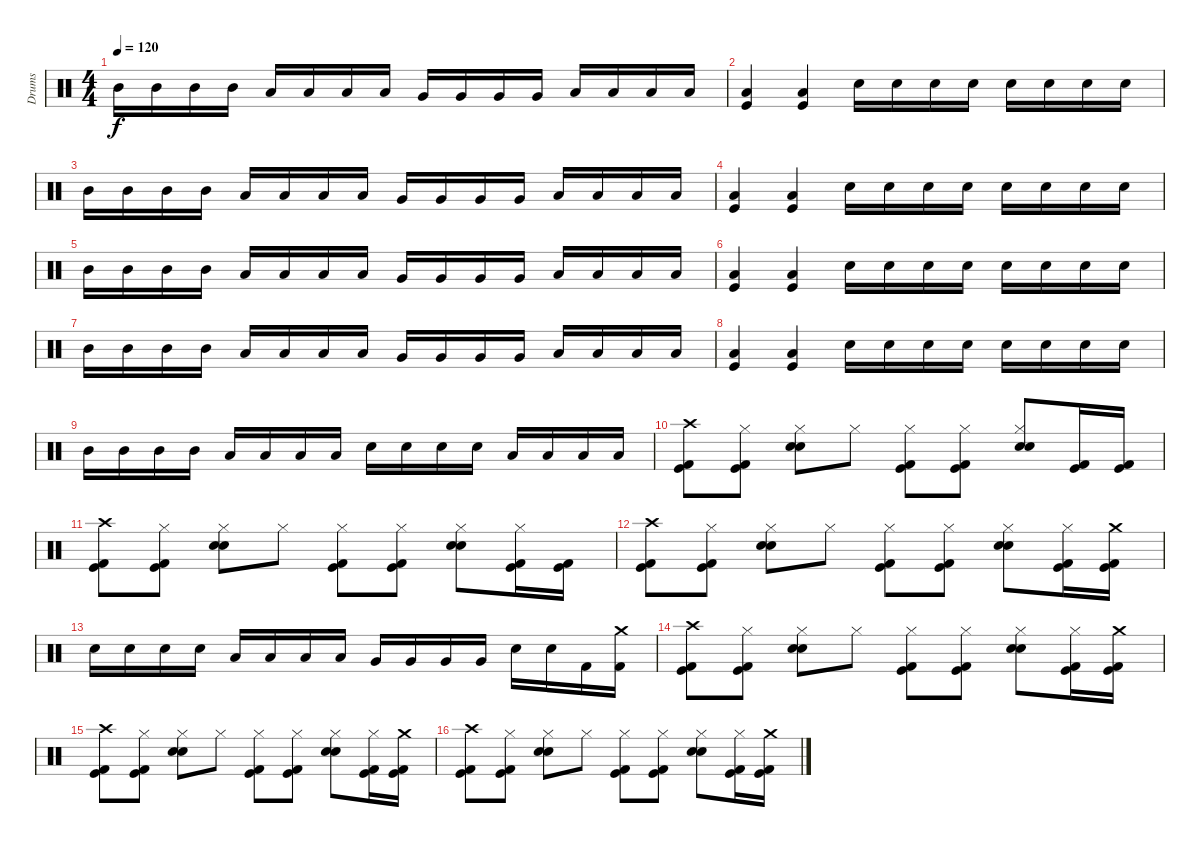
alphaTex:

\track ("Drums" "Drums") {instrument percussion}
\staff {score}
\articulation defaults
\ts (4 4)
\tempo 120
\clef neutral
\ks c "Mid Tom (hit)".16{dy f} "Mid Tom (hit)".16 "Mid Tom (hit)".16 "Mid Tom (hit)".16 "Low Tom (hit)".16 "Low Tom (hit)".16 "Low Tom (hit)".16 "Low Tom (hit)".16 "Very Low Tom (hit)".16 "Very Low Tom (hit)".16 "Very Low Tom (hit)".16 "Very Low Tom (hit)".16 "Low Floor Tom (hit)".16 "Low Floor Tom (hit)".16 "Low Floor Tom (hit)".16 "Low Floor Tom (hit)".16
|
("Kick (hit)" "Low Floor Tom (hit)").4 ("Kick (hit)" "Low Floor Tom (hit)").4 "Electric Snare (hit)".16 "Electric Snare (hit)".16 "Electric Snare (hit)".16 "Electric Snare (hit)".16 "Electric Snare (hit)".16 "Electric Snare (hit)".16 "Electric Snare (hit)".16 "Electric Snare (hit)".16 |
"Mid Tom (hit)".16 "Mid Tom (hit)".16 "Mid Tom (hit)".16 "Mid Tom (hit)".16 "Low Tom (hit)".16 "Low Tom (hit)".16 "Low Tom (hit)".16 "Low Tom (hit)".16 "Very Low Tom (hit)".16 "Very Low Tom (hit)".16 "Very Low Tom (hit)".16 "Very Low Tom (hit)".16 "Low Floor Tom (hit)".16 "Low Floor Tom (hit)".16 "Low Floor Tom (hit)".16 "Low Floor Tom (hit)".16 |
("Kick (hit)" "Low Floor Tom (hit)").4 ("Kick (hit)" "Low Floor Tom (hit)").4 "Electric Snare (hit)".16 "Electric Snare (hit)".16 "Electric Snare (hit)".16 "Electric Snare (hit)".16 "Electric Snare (hit)".16 "Electric Snare (hit)".16 "Electric Snare (hit)".16 "Electric Snare (hit)".16 |
"Mid Tom (hit)".16 "Mid Tom (hit)".16 "Mid Tom (hit)".16 "Mid Tom (hit)".16 "Low Tom (hit)".16 "Low Tom (hit)".16 "Low Tom (hit)".16 "Low Tom (hit)".16 "Very Low Tom (hit)".16 "Very Low Tom (hit)".16 "Very Low Tom (hit)".16 "Very Low Tom (hit)".16 "Low Floor Tom (hit)".16 "Low Floor Tom (hit)".16 "Low Floor Tom (hit)".16 "Low Floor Tom (hit)".16 |
("Kick (hit)" "Low Floor Tom (hit)").4 ("Kick (hit)" "Low Floor Tom (hit)").4 "Electric Snare (hit)".16 "Electric Snare (hit)".16 "Electric Snare (hit)".16 "Electric Snare (hit)".16 "Electric Snare (hit)".16 "Electric Snare (hit)".16 "Electric Snare (hit)".16 "Electric Snare (hit)".16 |
"Mid Tom (hit)".16 "Mid Tom (hit)".16 "Mid Tom (hit)".16 "Mid Tom (hit)".16 "Low Tom (hit)".16 "Low Tom (hit)".16 "Low Tom (hit)".16 "Low Tom (hit)".16 "Very Low Tom (hit)".16 "Very Low Tom (hit)".16 "Very Low Tom (hit)".16 "Very Low Tom (hit)".16 "Low Floor Tom (hit)".16 "Low Floor Tom (hit)".16 "Low Floor Tom (hit)".16 "Low Floor Tom (hit)".16 |
("Kick (hit)" "Low Floor Tom (hit)").4 ("Kick (hit)" "Low Floor Tom (hit)").4 "Electric Snare (hit)".16 "Electric Snare (hit)".16 "Electric Snare (hit)".16 "Electric Snare (hit)".16 "Electric Snare (hit)".16 "Electric Snare (hit)".16 "Electric Snare (hit)".16 "Electric Snare (hit)".16 |
"Mid Tom (hit)".16 "Mid Tom (hit)".16 "Mid Tom (hit)".16 "Mid Tom (hit)".16 "Low Tom (hit)".16 "Low Tom (hit)".16 "Low Tom (hit)".16 "Low Tom (hit)".16 "Electric Snare (hit)".16 "Electric Snare (hit)".16 "Electric Snare (hit)".16 "Electric Snare (hit)".16 "Low Floor Tom (hit)".16 "Low Floor Tom (hit)".16 "Low Floor Tom (hit)".16 "Low Floor Tom (hit)".16 |
("Crash high (hit)" "Kick (hit) 2" "Kick (hit)").8 ("Hi-Hat (closed)" "Kick (hit) 2" "Kick (hit)").8 ("Snare (hit) 2" "Hi-Hat (closed)" "Electric Snare (hit)").8 "Hi-Hat (closed)".8 ("Hi-Hat (closed)" "Kick (hit) 2" "Kick (hit)").8 ("Hi-Hat (closed)" "Kick (hit) 2" "Kick (hit)").8 ("Snare (hit) 2" "Hi-Hat (closed)" "Electric Snare (hit)").8 ("Kick (hit) 2" "Kick (hit)").16 ("Kick (hit) 2" "Kick (hit)").16 |
("Crash high (hit)" "Kick (hit) 2" "Kick (hit)").8 ("Hi-Hat (closed)" "Kick (hit) 2" "Kick (hit)").8 ("Snare (hit) 2" "Hi-Hat (closed)" "Electric Snare (hit)").8 "Hi-Hat (closed)".8 ("Hi-Hat (closed)" "Kick (hit) 2" "Kick (hit)").8 ("Hi-Hat (closed)" "Kick (hit) 2" "Kick (hit)").8 ("Snare (hit) 2" "Hi-Hat (closed)" "Electric Snare (hit)").8 ("Hi-Hat (closed)" "Kick (hit) 2" "Kick (hit)").16 ("Kick (hit) 2" "Kick (hit)").16 |
("Crash high (hit)" "Kick (hit) 2" "Kick (hit)").8 ("Hi-Hat (closed)" "Kick (hit) 2" "Kick (hit)").8 ("Snare (hit) 2" "Hi-Hat (closed)" "Electric Snare (hit)").8 "Hi-Hat (closed)".8 ("Hi-Hat (closed)" "Kick (hit) 2" "Kick (hit)").8 ("Hi-Hat (closed)" "Kick (hit) 2" "Kick (hit)").8 ("Snare (hit) 2" "Hi-Hat (closed)" "Electric Snare (hit)").8 ("Hi-Hat (closed)" "Kick (hit) 2" "Kick (hit)").16 ("Crash medium (hit)" "Kick (hit) 2" "Kick (hit)").16 |
"Electric Snare (hit)".16 "Electric Snare (hit)".16 "Electric Snare (hit)".16 "Electric Snare (hit)".16 "Low Tom (hit)".16 "Low Tom (hit)".16 "Low Tom (hit)".16 "Low Tom (hit)".16 "Very Low Tom (hit)".16 "Very Low Tom (hit)".16 "Very Low Tom (hit)".16 "Very Low Tom (hit)".16 "Electric Snare (hit)".16 "Electric Snare (hit)".16 "Kick (hit) 2".16 ("Crash medium (hit)" "Kick (hit) 2").16 |
("Crash high (hit)" "Kick (hit) 2" "Kick (hit)").8 ("Hi-Hat (closed)" "Kick (hit) 2" "Kick (hit)").8 ("Snare (hit) 2" "Hi-Hat (closed)" "Electric Snare (hit)").8 "Hi-Hat (closed)".8 ("Hi-Hat (closed)" "Kick (hit) 2" "Kick (hit)").8 ("Hi-Hat (closed)" "Kick (hit) 2" "Kick (hit)").8 ("Snare (hit) 2" "Hi-Hat (closed)" "Electric Snare (hit)").8 ("Hi-Hat (closed)" "Kick (hit) 2" "Kick (hit)").16 ("Crash medium (hit)" "Kick (hit) 2" "Kick (hit)").16 |
("Crash high (hit)" "Kick (hit) 2" "Kick (hit)").8 ("Hi-Hat (closed)" "Kick (hit) 2" "Kick (hit)").8 ("Snare (hit) 2" "Hi-Hat (closed)" "Electric Snare (hit)").8 "Hi-Hat (closed)".8 ("Hi-Hat (closed)" "Kick (hit) 2" "Kick (hit)").8 ("Hi-Hat (closed)" "Kick (hit) 2" "Kick (hit)").8 ("Snare (hit) 2" "Hi-Hat (closed)" "Electric Snare (hit)").8 ("Hi-Hat (closed)" "Kick (hit) 2" "Kick (hit)").16 ("Crash medium (hit)" "Kick (hit) 2" "Kick (hit)").16 |
("Crash high (hit)" "Kick (hit) 2" "Kick (hit)").8 ("Hi-Hat (closed)" "Kick (hit) 2" "Kick (hit)").8 ("Snare (hit) 2" "Hi-Hat (closed)" "Electric Snare (hit)").8 "Hi-Hat (closed)".8 ("Hi-Hat (closed)" "Kick (hit) 2" "Kick (hit)").8 ("Hi-Hat (closed)" "Kick (hit) 2" "Kick (hit)").8 ("Snare (hit) 2" "Hi-Hat (closed)" "Electric Snare (hit)").8 ("Hi-Hat (closed)" "Kick (hit) 2" "Kick (hit)").16 ("Crash medium (hit)" "Kick (hit) 2" "Kick (hit)").16
